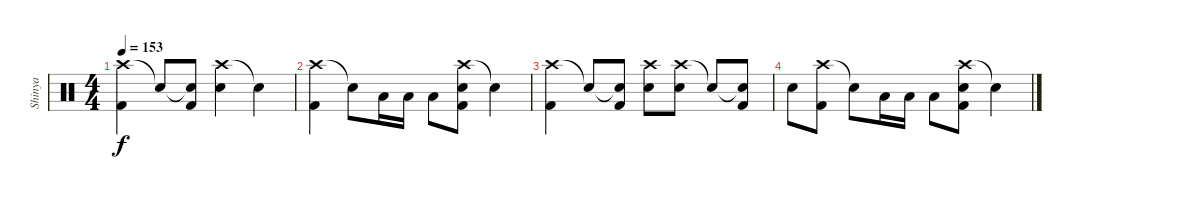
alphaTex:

\track ("Shinya" "Shinya") {instrument percussion}
\staff {score}
\articulation defaults
\ts (4 4)
\tempo 153
\clef neutral
\ks c
("Crash high (hit)" "Kick (hit) 2").4{dy f} "Snare (hit)"{t}.8 ("Snare (hit)"{t} "Kick (hit) 2").8 ("Crash high (hit)" "Electric Snare (hit)").4 "Snare (hit)"{t}.4 |
("Crash high (hit)" "Kick (hit) 2").4 "Snare (hit)"{t}.8 "Low Tom (hit)".16 "Low Tom (hit)".16 "Low Floor Tom (hit)".8 ("Crash high (hit)" "Electric Snare (hit)" "Kick (hit) 2").8 "Snare (hit)"{t}.4 |
("Crash high (hit)" "Kick (hit) 2").4 "Snare (hit)"{t}.8 ("Snare (hit)"{t} "Kick (hit) 2").8 ("Crash high (hit)" "Electric Snare (hit)").8 ("Crash high (hit)" "Electric Snare (hit)").8 "Snare (hit)"{t}.8 ("Snare (hit)"{t} "Kick (hit) 2").8 |
"Electric Snare (hit)".8 ("Crash high (hit)" "Kick (hit) 2").8 "Snare (hit)"{t}.8 "Low Tom (hit)".16 "Low Tom (hit)".16 "Low Floor Tom (hit)".8 ("Crash high (hit)" "Electric Snare (hit)" "Kick (hit) 2").8 "Snare (hit)"{t}.4
